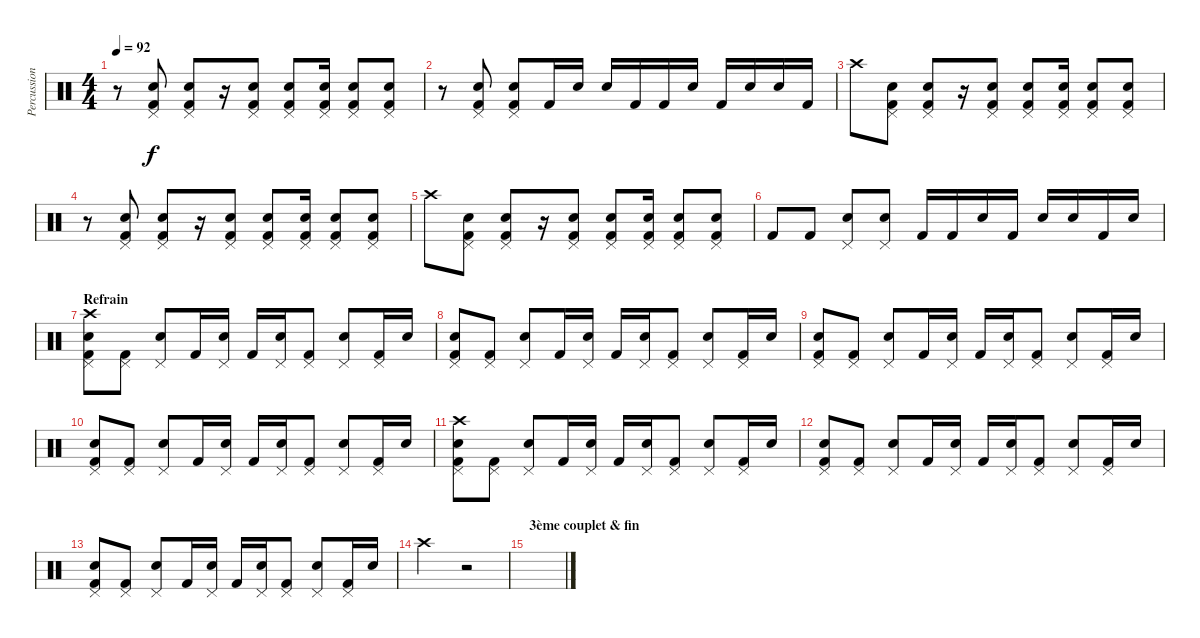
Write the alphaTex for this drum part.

\track ("Percussions" "Percussion") {instrument percussion}
\staff {score}
\articulation defaults
\ts (4 4)
\tempo 92
\clef neutral
\ks c
r.8{dy f} ("Electric Snare (hit)" "Pedal Hi-Hat (hit)" "Kick (hit) 2").8 ("Electric Snare (hit)" "Pedal Hi-Hat (hit)" "Kick (hit) 2").8 r.16 ("Electric Snare (hit)" "Pedal Hi-Hat (hit)" "Kick (hit) 2").8 ("Electric Snare (hit)" "Pedal Hi-Hat (hit)" "Kick (hit) 2").8 ("Electric Snare (hit)" "Pedal Hi-Hat (hit)" "Kick (hit) 2").16 ("Electric Snare (hit)" "Pedal Hi-Hat (hit)" "Kick (hit) 2").8 ("Electric Snare (hit)" "Pedal Hi-Hat (hit)" "Kick (hit) 2").8 |
r.8 ("Electric Snare (hit)" "Pedal Hi-Hat (hit)" "Kick (hit) 2").8 ("Electric Snare (hit)" "Pedal Hi-Hat (hit)" "Kick (hit) 2").8 "Kick (hit) 2".16 "Electric Snare (hit)".16 "Electric Snare (hit)".16 "Kick (hit) 2".16 "Kick (hit) 2".16 "Electric Snare (hit)".16 "Kick (hit) 2".16 "Electric Snare (hit)".16 "Electric Snare (hit)".16 "Kick (hit) 2".16 |
"Crash high (hit)".8 ("Electric Snare (hit)" "Pedal Hi-Hat (hit)" "Kick (hit) 2").8 ("Electric Snare (hit)" "Pedal Hi-Hat (hit)" "Kick (hit) 2").8 r.16 ("Electric Snare (hit)" "Pedal Hi-Hat (hit)" "Kick (hit) 2").8 ("Electric Snare (hit)" "Pedal Hi-Hat (hit)" "Kick (hit) 2").8 ("Electric Snare (hit)" "Pedal Hi-Hat (hit)" "Kick (hit) 2").16 ("Electric Snare (hit)" "Pedal Hi-Hat (hit)" "Kick (hit) 2").8 ("Electric Snare (hit)" "Pedal Hi-Hat (hit)" "Kick (hit) 2").8 |
r.8 ("Electric Snare (hit)" "Pedal Hi-Hat (hit)" "Kick (hit) 2").8 ("Electric Snare (hit)" "Pedal Hi-Hat (hit)" "Kick (hit) 2").8 r.16 ("Electric Snare (hit)" "Pedal Hi-Hat (hit)" "Kick (hit) 2").8 ("Electric Snare (hit)" "Pedal Hi-Hat (hit)" "Kick (hit) 2").8 ("Electric Snare (hit)" "Pedal Hi-Hat (hit)" "Kick (hit) 2").16 ("Electric Snare (hit)" "Pedal Hi-Hat (hit)" "Kick (hit) 2").8 ("Electric Snare (hit)" "Pedal Hi-Hat (hit)" "Kick (hit) 2").8 |
"Crash high (hit)".8 ("Electric Snare (hit)" "Pedal Hi-Hat (hit)" "Kick (hit) 2").8 ("Electric Snare (hit)" "Pedal Hi-Hat (hit)" "Kick (hit) 2").8 r.16 ("Electric Snare (hit)" "Pedal Hi-Hat (hit)" "Kick (hit) 2").8 ("Electric Snare (hit)" "Pedal Hi-Hat (hit)" "Kick (hit) 2").8 ("Electric Snare (hit)" "Pedal Hi-Hat (hit)" "Kick (hit) 2").16 ("Electric Snare (hit)" "Pedal Hi-Hat (hit)" "Kick (hit) 2").8 ("Electric Snare (hit)" "Pedal Hi-Hat (hit)" "Kick (hit) 2").8 |
"Kick (hit) 2".8 "Kick (hit) 2".8 ("Pedal Hi-Hat (hit)" "Electric Snare (hit)").8 ("Pedal Hi-Hat (hit)" "Electric Snare (hit)").8 "Kick (hit) 2".16 "Kick (hit) 2".16 "Electric Snare (hit)".16 "Kick (hit) 2".16 "Electric Snare (hit)".16 "Electric Snare (hit)".16 "Kick (hit) 2".16 "Electric Snare (hit)".16 |
\section ("" "Refrain")
("Pedal Hi-Hat (hit)" "Crash high (hit)" "Electric Snare (hit)" "Kick (hit) 2").8 ("Pedal Hi-Hat (hit)" "Kick (hit) 2").8 ("Pedal Hi-Hat (hit)" "Electric Snare (hit)").8 "Kick (hit) 2".16 ("Pedal Hi-Hat (hit)" "Electric Snare (hit)").16 "Kick (hit) 2".16 ("Pedal Hi-Hat (hit)" "Electric Snare (hit)").16 ("Pedal Hi-Hat (hit)" "Kick (hit) 2").8 ("Pedal Hi-Hat (hit)" "Electric Snare (hit)").8 ("Pedal Hi-Hat (hit)" "Kick (hit) 2").16 "Electric Snare (hit)".16 |
("Pedal Hi-Hat (hit)" "Electric Snare (hit)" "Kick (hit) 2").8 ("Pedal Hi-Hat (hit)" "Kick (hit) 2").8 ("Pedal Hi-Hat (hit)" "Electric Snare (hit)").8 "Kick (hit) 2".16 ("Pedal Hi-Hat (hit)" "Electric Snare (hit)").16 "Kick (hit) 2".16 ("Pedal Hi-Hat (hit)" "Electric Snare (hit)").16 ("Pedal Hi-Hat (hit)" "Kick (hit) 2").8 ("Pedal Hi-Hat (hit)" "Electric Snare (hit)").8 ("Pedal Hi-Hat (hit)" "Kick (hit) 2").16 "Electric Snare (hit)".16 |
("Pedal Hi-Hat (hit)" "Electric Snare (hit)" "Kick (hit) 2").8 ("Pedal Hi-Hat (hit)" "Kick (hit) 2").8 ("Pedal Hi-Hat (hit)" "Electric Snare (hit)").8 "Kick (hit) 2".16 ("Pedal Hi-Hat (hit)" "Electric Snare (hit)").16 "Kick (hit) 2".16 ("Pedal Hi-Hat (hit)" "Electric Snare (hit)").16 ("Pedal Hi-Hat (hit)" "Kick (hit) 2").8 ("Pedal Hi-Hat (hit)" "Electric Snare (hit)").8 ("Pedal Hi-Hat (hit)" "Kick (hit) 2").16 "Electric Snare (hit)".16 |
("Pedal Hi-Hat (hit)" "Electric Snare (hit)" "Kick (hit) 2").8 ("Pedal Hi-Hat (hit)" "Kick (hit) 2").8 ("Pedal Hi-Hat (hit)" "Electric Snare (hit)").8 "Kick (hit) 2".16 ("Pedal Hi-Hat (hit)" "Electric Snare (hit)").16 "Kick (hit) 2".16 ("Pedal Hi-Hat (hit)" "Electric Snare (hit)").16 ("Pedal Hi-Hat (hit)" "Kick (hit) 2").8 ("Pedal Hi-Hat (hit)" "Electric Snare (hit)").8 ("Pedal Hi-Hat (hit)" "Kick (hit) 2").16 "Electric Snare (hit)".16 |
("Pedal Hi-Hat (hit)" "Crash high (hit)" "Electric Snare (hit)" "Kick (hit) 2").8 ("Pedal Hi-Hat (hit)" "Kick (hit) 2").8 ("Pedal Hi-Hat (hit)" "Electric Snare (hit)").8 "Kick (hit) 2".16 ("Pedal Hi-Hat (hit)" "Electric Snare (hit)").16 "Kick (hit) 2".16 ("Pedal Hi-Hat (hit)" "Electric Snare (hit)").16 ("Pedal Hi-Hat (hit)" "Kick (hit) 2").8 ("Pedal Hi-Hat (hit)" "Electric Snare (hit)").8 ("Pedal Hi-Hat (hit)" "Kick (hit) 2").16 "Electric Snare (hit)".16 |
("Pedal Hi-Hat (hit)" "Electric Snare (hit)" "Kick (hit) 2").8 ("Pedal Hi-Hat (hit)" "Kick (hit) 2").8 ("Pedal Hi-Hat (hit)" "Electric Snare (hit)").8 "Kick (hit) 2".16 ("Pedal Hi-Hat (hit)" "Electric Snare (hit)").16 "Kick (hit) 2".16 ("Pedal Hi-Hat (hit)" "Electric Snare (hit)").16 ("Pedal Hi-Hat (hit)" "Kick (hit) 2").8 ("Pedal Hi-Hat (hit)" "Electric Snare (hit)").8 ("Pedal Hi-Hat (hit)" "Kick (hit) 2").16 "Electric Snare (hit)".16 |
("Pedal Hi-Hat (hit)" "Electric Snare (hit)" "Kick (hit) 2").8 ("Pedal Hi-Hat (hit)" "Kick (hit) 2").8 ("Pedal Hi-Hat (hit)" "Electric Snare (hit)").8 "Kick (hit) 2".16 ("Pedal Hi-Hat (hit)" "Electric Snare (hit)").16 "Kick (hit) 2".16 ("Pedal Hi-Hat (hit)" "Electric Snare (hit)").16 ("Pedal Hi-Hat (hit)" "Kick (hit) 2").8 ("Pedal Hi-Hat (hit)" "Electric Snare (hit)").8 ("Pedal Hi-Hat (hit)" "Kick (hit) 2").16 "Electric Snare (hit)".16 |
"Crash high (hit)".2 r.2 |
\section ("" "3ème couplet & fin")
